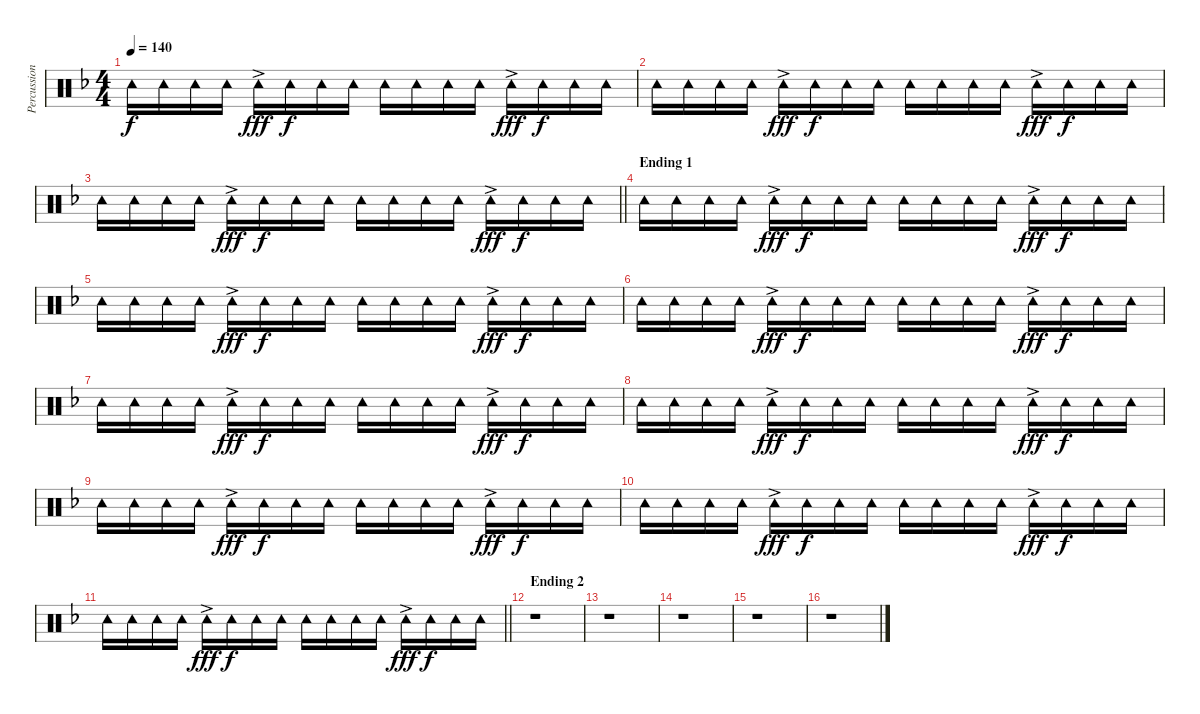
\track ("Percussion" "Percussion") {instrument percussion}
\staff {score}
\articulation defaults
\ts (4 4)
\tempo 140
\clef neutral
\ks f "Tambourine (hit)".16{dy f} "Tambourine (hit)".16 "Tambourine (hit)".16 "Tambourine (hit)".16 "Tambourine (hit)"{ac}.16{dy fff} "Tambourine (hit)".16{dy f} "Tambourine (hit)".16 "Tambourine (hit)".16 "Tambourine (hit)".16 "Tambourine (hit)".16 "Tambourine (hit)".16 "Tambourine (hit)".16 "Tambourine (hit)"{ac}.16{dy fff} "Tambourine (hit)".16{dy f} "Tambourine (hit)".16 "Tambourine (hit)".16
|
"Tambourine (hit)".16 "Tambourine (hit)".16 "Tambourine (hit)".16 "Tambourine (hit)".16 "Tambourine (hit)"{ac}.16{dy fff} "Tambourine (hit)".16{dy f} "Tambourine (hit)".16 "Tambourine (hit)".16 "Tambourine (hit)".16 "Tambourine (hit)".16 "Tambourine (hit)".16 "Tambourine (hit)".16 "Tambourine (hit)"{ac}.16{dy fff} "Tambourine (hit)".16{dy f} "Tambourine (hit)".16 "Tambourine (hit)".16 |
\barLineRight lightlight "Tambourine (hit)".16 "Tambourine (hit)".16 "Tambourine (hit)".16 "Tambourine (hit)".16 "Tambourine (hit)"{ac}.16{dy fff} "Tambourine (hit)".16{dy f} "Tambourine (hit)".16 "Tambourine (hit)".16 "Tambourine (hit)".16 "Tambourine (hit)".16 "Tambourine (hit)".16 "Tambourine (hit)".16 "Tambourine (hit)"{ac}.16{dy fff} "Tambourine (hit)".16{dy f} "Tambourine (hit)".16 "Tambourine (hit)".16
|
\section ("" "Ending 1")
"Tambourine (hit)".16 "Tambourine (hit)".16 "Tambourine (hit)".16 "Tambourine (hit)".16 "Tambourine (hit)"{ac}.16{dy fff} "Tambourine (hit)".16{dy f} "Tambourine (hit)".16 "Tambourine (hit)".16 "Tambourine (hit)".16 "Tambourine (hit)".16 "Tambourine (hit)".16 "Tambourine (hit)".16 "Tambourine (hit)"{ac}.16{dy fff} "Tambourine (hit)".16{dy f} "Tambourine (hit)".16 "Tambourine (hit)".16 |
"Tambourine (hit)".16 "Tambourine (hit)".16 "Tambourine (hit)".16 "Tambourine (hit)".16 "Tambourine (hit)"{ac}.16{dy fff} "Tambourine (hit)".16{dy f} "Tambourine (hit)".16 "Tambourine (hit)".16 "Tambourine (hit)".16 "Tambourine (hit)".16 "Tambourine (hit)".16 "Tambourine (hit)".16 "Tambourine (hit)"{ac}.16{dy fff} "Tambourine (hit)".16{dy f} "Tambourine (hit)".16 "Tambourine (hit)".16 |
"Tambourine (hit)".16 "Tambourine (hit)".16 "Tambourine (hit)".16 "Tambourine (hit)".16 "Tambourine (hit)"{ac}.16{dy fff} "Tambourine (hit)".16{dy f} "Tambourine (hit)".16 "Tambourine (hit)".16 "Tambourine (hit)".16 "Tambourine (hit)".16 "Tambourine (hit)".16 "Tambourine (hit)".16 "Tambourine (hit)"{ac}.16{dy fff} "Tambourine (hit)".16{dy f} "Tambourine (hit)".16 "Tambourine (hit)".16 |
"Tambourine (hit)".16 "Tambourine (hit)".16 "Tambourine (hit)".16 "Tambourine (hit)".16 "Tambourine (hit)"{ac}.16{dy fff} "Tambourine (hit)".16{dy f} "Tambourine (hit)".16 "Tambourine (hit)".16 "Tambourine (hit)".16 "Tambourine (hit)".16 "Tambourine (hit)".16 "Tambourine (hit)".16 "Tambourine (hit)"{ac}.16{dy fff} "Tambourine (hit)".16{dy f} "Tambourine (hit)".16 "Tambourine (hit)".16 |
"Tambourine (hit)".16 "Tambourine (hit)".16 "Tambourine (hit)".16 "Tambourine (hit)".16 "Tambourine (hit)"{ac}.16{dy fff} "Tambourine (hit)".16{dy f} "Tambourine (hit)".16 "Tambourine (hit)".16 "Tambourine (hit)".16 "Tambourine (hit)".16 "Tambourine (hit)".16 "Tambourine (hit)".16 "Tambourine (hit)"{ac}.16{dy fff} "Tambourine (hit)".16{dy f} "Tambourine (hit)".16 "Tambourine (hit)".16 |
"Tambourine (hit)".16 "Tambourine (hit)".16 "Tambourine (hit)".16 "Tambourine (hit)".16 "Tambourine (hit)"{ac}.16{dy fff} "Tambourine (hit)".16{dy f} "Tambourine (hit)".16 "Tambourine (hit)".16 "Tambourine (hit)".16 "Tambourine (hit)".16 "Tambourine (hit)".16 "Tambourine (hit)".16 "Tambourine (hit)"{ac}.16{dy fff} "Tambourine (hit)".16{dy f} "Tambourine (hit)".16 "Tambourine (hit)".16 |
"Tambourine (hit)".16 "Tambourine (hit)".16 "Tambourine (hit)".16 "Tambourine (hit)".16 "Tambourine (hit)"{ac}.16{dy fff} "Tambourine (hit)".16{dy f} "Tambourine (hit)".16 "Tambourine (hit)".16 "Tambourine (hit)".16 "Tambourine (hit)".16 "Tambourine (hit)".16 "Tambourine (hit)".16 "Tambourine (hit)"{ac}.16{dy fff} "Tambourine (hit)".16{dy f} "Tambourine (hit)".16 "Tambourine (hit)".16 |
\barLineRight lightlight "Tambourine (hit)".16 "Tambourine (hit)".16 "Tambourine (hit)".16 "Tambourine (hit)".16 "Tambourine (hit)"{ac}.16{dy fff} "Tambourine (hit)".16{dy f} "Tambourine (hit)".16 "Tambourine (hit)".16 "Tambourine (hit)".16 "Tambourine (hit)".16 "Tambourine (hit)".16 "Tambourine (hit)".16 "Tambourine (hit)"{ac}.16{dy fff} "Tambourine (hit)".16{dy f} "Tambourine (hit)".16 "Tambourine (hit)".16
|
\section ("" "Ending 2")
r.1 |
r.1 |
r.1 |
r.1 |
r.1
